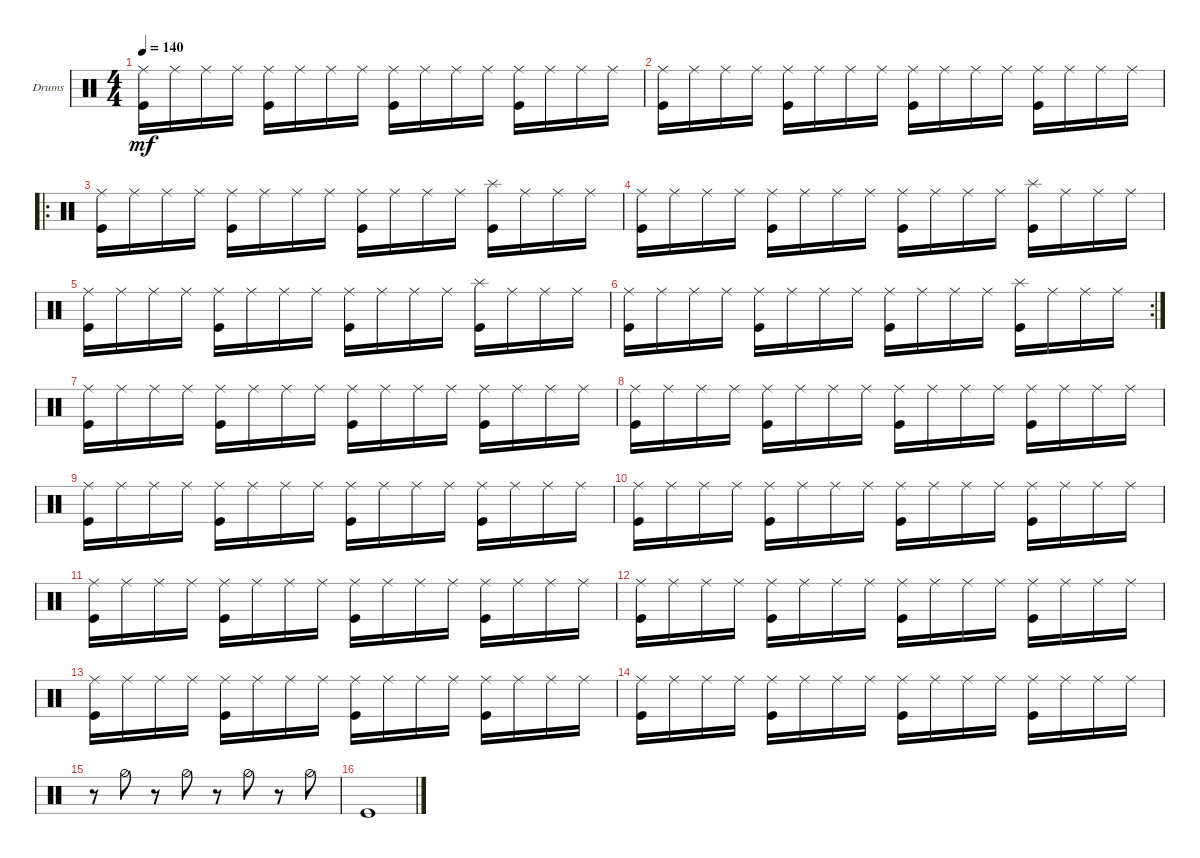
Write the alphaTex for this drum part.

\defaultSystemsLayout 4
\bracketExtendMode groupsimilarinstruments
\firstSystemTrackNameOrientation horizontal
\otherSystemsTrackNameOrientation horizontal
\track ("Drumkit" "Drums") {instrument percussion}
\staff {score}
\articulation defaults
\ts (4 4)
\tempo 140
\clef neutral
\ks c
("Ride (middle)" "Kick (hit)").16{dy mf} "Ride (middle)".16 "Ride (middle)".16 "Ride (middle)".16 ("Ride (middle)" "Kick (hit)").16 "Ride (middle)".16 "Ride (middle)".16 "Ride (middle)".16 ("Ride (middle)" "Kick (hit)").16 "Ride (middle)".16 "Ride (middle)".16 "Ride (middle)".16 ("Ride (middle)" "Kick (hit)").16 "Ride (middle)".16 "Ride (middle)".16 "Ride (middle)".16 |
("Ride (middle)" "Kick (hit)").16 "Ride (middle)".16 "Ride (middle)".16 "Ride (middle)".16 ("Ride (middle)" "Kick (hit)").16 "Ride (middle)".16 "Ride (middle)".16 "Ride (middle)".16 ("Ride (middle)" "Kick (hit)").16 "Ride (middle)".16 "Ride (middle)".16 "Ride (middle)".16 ("Ride (middle)" "Kick (hit)").16 "Ride (middle)".16 "Ride (middle)".16 "Ride (middle)".16 |
\ro
("Ride (middle)" "Kick (hit)").16 "Ride (middle)".16 "Ride (middle)".16 "Ride (middle)".16 ("Ride (middle)" "Kick (hit)").16 "Ride (middle)".16 "Ride (middle)".16 "Ride (middle)".16 ("Ride (middle)" "Kick (hit)").16 "Ride (middle)".16 "Ride (middle)".16 "Ride (middle)".16 ("Kick (hit)" "Splash (hit)").16 "Ride (middle)".16 "Ride (middle)".16 "Ride (middle)".16 |
("Ride (middle)" "Kick (hit)").16 "Ride (middle)".16 "Ride (middle)".16 "Ride (middle)".16 ("Ride (middle)" "Kick (hit)").16 "Ride (middle)".16 "Ride (middle)".16 "Ride (middle)".16 ("Ride (middle)" "Kick (hit)").16 "Ride (middle)".16 "Ride (middle)".16 "Ride (middle)".16 ("Kick (hit)" "Splash (hit)").16 "Ride (middle)".16 "Ride (middle)".16 "Ride (middle)".16 |
("Ride (middle)" "Kick (hit)").16 "Ride (middle)".16 "Ride (middle)".16 "Ride (middle)".16 ("Ride (middle)" "Kick (hit)").16 "Ride (middle)".16 "Ride (middle)".16 "Ride (middle)".16 ("Ride (middle)" "Kick (hit)").16 "Ride (middle)".16 "Ride (middle)".16 "Ride (middle)".16 ("Kick (hit)" "Splash (hit)").16 "Ride (middle)".16 "Ride (middle)".16 "Ride (middle)".16 |
\rc 2
("Ride (middle)" "Kick (hit)").16 "Ride (middle)".16 "Ride (middle)".16 "Ride (middle)".16 ("Ride (middle)" "Kick (hit)").16 "Ride (middle)".16 "Ride (middle)".16 "Ride (middle)".16 ("Ride (middle)" "Kick (hit)").16 "Ride (middle)".16 "Ride (middle)".16 "Ride (middle)".16 ("Kick (hit)" "Splash (hit)").16 "Ride (middle)".16 "Ride (middle)".16 "Ride (middle)".16 |
("Ride (middle)" "Kick (hit)").16 "Ride (middle)".16 "Ride (middle)".16 "Ride (middle)".16 ("Ride (middle)" "Kick (hit)").16 "Ride (middle)".16 "Ride (middle)".16 "Ride (middle)".16 ("Ride (middle)" "Kick (hit)").16 "Ride (middle)".16 "Ride (middle)".16 "Ride (middle)".16 ("Ride (middle)" "Kick (hit)").16 "Ride (middle)".16 "Ride (middle)".16 "Ride (middle)".16 |
("Ride (middle)" "Kick (hit)").16 "Ride (middle)".16 "Ride (middle)".16 "Ride (middle)".16 ("Ride (middle)" "Kick (hit)").16 "Ride (middle)".16 "Ride (middle)".16 "Ride (middle)".16 ("Ride (middle)" "Kick (hit)").16 "Ride (middle)".16 "Ride (middle)".16 "Ride (middle)".16 ("Ride (middle)" "Kick (hit)").16 "Ride (middle)".16 "Ride (middle)".16 "Ride (middle)".16 |
("Ride (middle)" "Kick (hit)").16 "Ride (middle)".16 "Ride (middle)".16 "Ride (middle)".16 ("Ride (middle)" "Kick (hit)").16 "Ride (middle)".16 "Ride (middle)".16 "Ride (middle)".16 ("Ride (middle)" "Kick (hit)").16 "Ride (middle)".16 "Ride (middle)".16 "Ride (middle)".16 ("Ride (middle)" "Kick (hit)").16 "Ride (middle)".16 "Ride (middle)".16 "Ride (middle)".16 |
("Ride (middle)" "Kick (hit)").16 "Ride (middle)".16 "Ride (middle)".16 "Ride (middle)".16 ("Ride (middle)" "Kick (hit)").16 "Ride (middle)".16 "Ride (middle)".16 "Ride (middle)".16 ("Ride (middle)" "Kick (hit)").16 "Ride (middle)".16 "Ride (middle)".16 "Ride (middle)".16 ("Ride (middle)" "Kick (hit)").16 "Ride (middle)".16 "Ride (middle)".16 "Ride (middle)".16 |
("Ride (middle)" "Kick (hit)").16 "Ride (middle)".16 "Ride (middle)".16 "Ride (middle)".16 ("Ride (middle)" "Kick (hit)").16 "Ride (middle)".16 "Ride (middle)".16 "Ride (middle)".16 ("Ride (middle)" "Kick (hit)").16 "Ride (middle)".16 "Ride (middle)".16 "Ride (middle)".16 ("Ride (middle)" "Kick (hit)").16 "Ride (middle)".16 "Ride (middle)".16 "Ride (middle)".16 |
("Ride (middle)" "Kick (hit)").16 "Ride (middle)".16 "Ride (middle)".16 "Ride (middle)".16 ("Ride (middle)" "Kick (hit)").16 "Ride (middle)".16 "Ride (middle)".16 "Ride (middle)".16 ("Ride (middle)" "Kick (hit)").16 "Ride (middle)".16 "Ride (middle)".16 "Ride (middle)".16 ("Ride (middle)" "Kick (hit)").16 "Ride (middle)".16 "Ride (middle)".16 "Ride (middle)".16 |
("Ride (middle)" "Kick (hit)").16 "Ride (middle)".16 "Ride (middle)".16 "Ride (middle)".16 ("Ride (middle)" "Kick (hit)").16 "Ride (middle)".16 "Ride (middle)".16 "Ride (middle)".16 ("Ride (middle)" "Kick (hit)").16 "Ride (middle)".16 "Ride (middle)".16 "Ride (middle)".16 ("Ride (middle)" "Kick (hit)").16 "Ride (middle)".16 "Ride (middle)".16 "Ride (middle)".16 |
("Ride (middle)" "Kick (hit)").16 "Ride (middle)".16 "Ride (middle)".16 "Ride (middle)".16 ("Ride (middle)" "Kick (hit)").16 "Ride (middle)".16 "Ride (middle)".16 "Ride (middle)".16 ("Ride (middle)" "Kick (hit)").16 "Ride (middle)".16 "Ride (middle)".16 "Ride (middle)".16 ("Ride (middle)" "Kick (hit)").16 "Ride (middle)".16 "Ride (middle)".16 "Ride (middle)".16 |
r.8 "Hi-Hat (half)".8 r.8 "Hi-Hat (half)".8 r.8 "Hi-Hat (half)".8 r.8 "Hi-Hat (half)".8 |
"Kick (hit)".1
